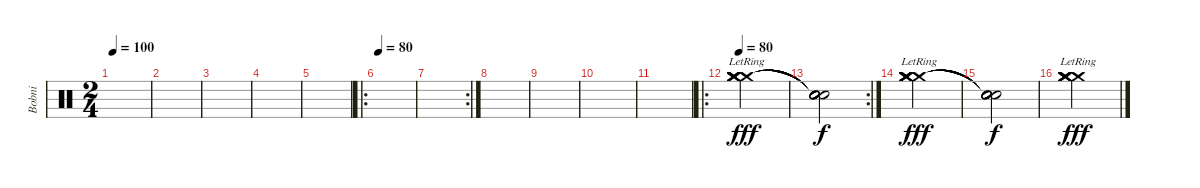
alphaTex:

\track ("Bobni" "Bobni") {instrument percussion}
\staff {score}
\articulation defaults
\ts (2 4)
\tempo 100
\clef neutral
\ks c
|
|
|
|
|
\ro
\tempo 80
|
\rc 2
|
|
|
|
|
\ro
\tempo 80
("Crash medium (hit)"{lr} "Crash medium (hit)"{lr} "Crash medium (hit)"{lr} "Crash medium (hit)"{lr} "Crash medium (hit)"{lr} "Crash medium (hit)"{lr}).2{dy fff} |
\rc 2
("Snare (hit)"{t} "Snare (hit)"{t} "Snare (hit)"{t} "Snare (hit)"{t} "Snare (hit)"{t} "Snare (hit)"{t}).2{dy f} |
("Crash medium (hit)"{lr} "Crash medium (hit)"{lr} "Crash medium (hit)"{lr} "Crash medium (hit)"{lr} "Crash medium (hit)"{lr} "Crash medium (hit)"{lr}).2{dy fff} |
("Snare (hit)"{t} "Snare (hit)"{t} "Snare (hit)"{t} "Snare (hit)"{t} "Snare (hit)"{t} "Snare (hit)"{t}).2{dy f} |
("Crash medium (hit)"{lr} "Crash medium (hit)"{lr} "Crash medium (hit)"{lr} "Crash medium (hit)"{lr} "Crash medium (hit)"{lr} "Crash medium (hit)"{lr}).2{dy fff}
